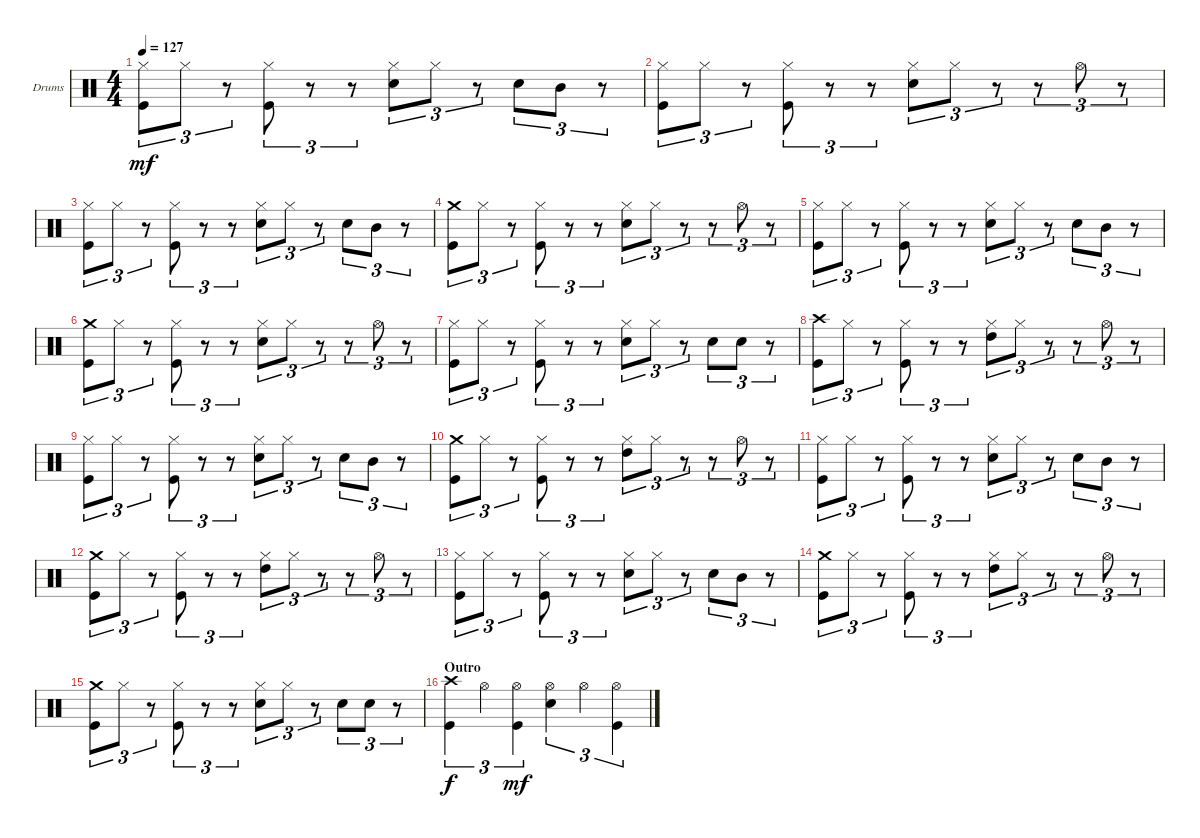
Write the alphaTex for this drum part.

\bracketExtendMode groupsimilarinstruments
\firstSystemTrackNameOrientation horizontal
\otherSystemsTrackNameOrientation horizontal
\track ("Drumkit" "Drums") {instrument percussion}
\staff {score}
\articulation defaults
\ts (4 4)
\tempo 127
\clef neutral
\ks c
("Kick (hit)" "Hi-Hat (closed)").8{tu (3 2) dy mf} "Hi-Hat (closed)".8{tu (3 2)} r.8{tu (3 2)} ("Hi-Hat (closed)" "Kick (hit)").8{tu (3 2)} r.8{tu (3 2)} r.8{tu (3 2)} ("Hi-Hat (closed)" "Snare (hit) 2").8{tu (3 2)} "Hi-Hat (closed)".8{tu (3 2)} r.8{tu (3 2)} "Snare (hit) 2".8{tu (3 2)} "Mid Tom (hit)".8{tu (3 2)} r.8{tu (3 2)} |
("Kick (hit)" "Hi-Hat (closed)").8{tu (3 2)} "Hi-Hat (closed)".8{tu (3 2)} r.8{tu (3 2)} ("Hi-Hat (closed)" "Kick (hit)").8{tu (3 2)} r.8{tu (3 2)} r.8{tu (3 2)} ("Snare (hit) 2" "Hi-Hat (closed)").8{tu (3 2)} "Hi-Hat (closed)".8{tu (3 2)} r.8{tu (3 2)} r.8{tu (3 2)} "Hi-Hat (open)".8{tu (3 2)} r.8{tu (3 2)} |
("Kick (hit)" "Hi-Hat (closed)").8{tu (3 2)} "Hi-Hat (closed)".8{tu (3 2)} r.8{tu (3 2)} ("Hi-Hat (closed)" "Kick (hit)").8{tu (3 2)} r.8{tu (3 2)} r.8{tu (3 2)} ("Hi-Hat (closed)" "Snare (hit) 2").8{tu (3 2)} "Hi-Hat (closed)".8{tu (3 2)} r.8{tu (3 2)} "Snare (hit) 2".8{tu (3 2)} "Mid Tom (hit)".8{tu (3 2)} r.8{tu (3 2)} |
("Kick (hit)" "Crash medium (hit)").8{tu (3 2)} "Hi-Hat (closed)".8{tu (3 2)} r.8{tu (3 2)} ("Hi-Hat (closed)" "Kick (hit)").8{tu (3 2)} r.8{tu (3 2)} r.8{tu (3 2)} ("Snare (hit) 2" "Hi-Hat (closed)").8{tu (3 2)} "Hi-Hat (closed)".8{tu (3 2)} r.8{tu (3 2)} r.8{tu (3 2)} "Hi-Hat (open)".8{tu (3 2)} r.8{tu (3 2)} |
("Kick (hit)" "Hi-Hat (closed)").8{tu (3 2)} "Hi-Hat (closed)".8{tu (3 2)} r.8{tu (3 2)} ("Hi-Hat (closed)" "Kick (hit)").8{tu (3 2)} r.8{tu (3 2)} r.8{tu (3 2)} ("Hi-Hat (closed)" "Snare (hit) 2").8{tu (3 2)} "Hi-Hat (closed)".8{tu (3 2)} r.8{tu (3 2)} "Snare (hit) 2".8{tu (3 2)} "Mid Tom (hit)".8{tu (3 2)} r.8{tu (3 2)} |
("Kick (hit)" "Crash medium (hit)").8{tu (3 2)} "Hi-Hat (closed)".8{tu (3 2)} r.8{tu (3 2)} ("Hi-Hat (closed)" "Kick (hit)").8{tu (3 2)} r.8{tu (3 2)} r.8{tu (3 2)} ("Snare (hit) 2" "Hi-Hat (closed)").8{tu (3 2)} "Hi-Hat (closed)".8{tu (3 2)} r.8{tu (3 2)} r.8{tu (3 2)} "Hi-Hat (open)".8{tu (3 2)} r.8{tu (3 2)} |
("Kick (hit)" "Hi-Hat (closed)").8{tu (3 2)} "Hi-Hat (closed)".8{tu (3 2)} r.8{tu (3 2)} ("Hi-Hat (closed)" "Kick (hit)").8{tu (3 2)} r.8{tu (3 2)} r.8{tu (3 2)} ("Hi-Hat (closed)" "Snare (hit) 2").8{tu (3 2)} "Hi-Hat (closed)".8{tu (3 2)} r.8{tu (3 2)} "Snare (hit) 2".8{tu (3 2)} "Snare (hit) 2".8{tu (3 2)} r.8{tu (3 2)} |
("Kick (hit)" "Crash high (hit)").8{tu (3 2)} "Hi-Hat (closed)".8{tu (3 2)} r.8{tu (3 2)} ("Hi-Hat (closed)" "Kick (hit)").8{tu (3 2)} r.8{tu (3 2)} r.8{tu (3 2)} ("Hi-Hat (closed)" "High Tom (hit)").8{tu (3 2)} "Hi-Hat (closed)".8{tu (3 2)} r.8{tu (3 2)} r.8{tu (3 2)} "Hi-Hat (open)".8{tu (3 2)} r.8{tu (3 2)} |
("Kick (hit)" "Hi-Hat (closed)").8{tu (3 2)} "Hi-Hat (closed)".8{tu (3 2)} r.8{tu (3 2)} ("Hi-Hat (closed)" "Kick (hit)").8{tu (3 2)} r.8{tu (3 2)} r.8{tu (3 2)} ("Hi-Hat (closed)" "Snare (hit) 2").8{tu (3 2)} "Hi-Hat (closed)".8{tu (3 2)} r.8{tu (3 2)} "Snare (hit) 2".8{tu (3 2)} "Mid Tom (hit)".8{tu (3 2)} r.8{tu (3 2)} |
("Kick (hit)" "Crash medium (hit)").8{tu (3 2)} "Hi-Hat (closed)".8{tu (3 2)} r.8{tu (3 2)} ("Hi-Hat (closed)" "Kick (hit)").8{tu (3 2)} r.8{tu (3 2)} r.8{tu (3 2)} ("Hi-Hat (closed)" "High Tom (hit)").8{tu (3 2)} "Hi-Hat (closed)".8{tu (3 2)} r.8{tu (3 2)} r.8{tu (3 2)} "Hi-Hat (open)".8{tu (3 2)} r.8{tu (3 2)} |
("Kick (hit)" "Hi-Hat (closed)").8{tu (3 2)} "Hi-Hat (closed)".8{tu (3 2)} r.8{tu (3 2)} ("Hi-Hat (closed)" "Kick (hit)").8{tu (3 2)} r.8{tu (3 2)} r.8{tu (3 2)} ("Hi-Hat (closed)" "Snare (hit) 2").8{tu (3 2)} "Hi-Hat (closed)".8{tu (3 2)} r.8{tu (3 2)} "Snare (hit) 2".8{tu (3 2)} "Mid Tom (hit)".8{tu (3 2)} r.8{tu (3 2)} |
("Kick (hit)" "Crash medium (hit)").8{tu (3 2)} "Hi-Hat (closed)".8{tu (3 2)} r.8{tu (3 2)} ("Hi-Hat (closed)" "Kick (hit)").8{tu (3 2)} r.8{tu (3 2)} r.8{tu (3 2)} ("Hi-Hat (closed)" "High Tom (hit)").8{tu (3 2)} "Hi-Hat (closed)".8{tu (3 2)} r.8{tu (3 2)} r.8{tu (3 2)} "Hi-Hat (open)".8{tu (3 2)} r.8{tu (3 2)} |
("Kick (hit)" "Hi-Hat (closed)").8{tu (3 2)} "Hi-Hat (closed)".8{tu (3 2)} r.8{tu (3 2)} ("Hi-Hat (closed)" "Kick (hit)").8{tu (3 2)} r.8{tu (3 2)} r.8{tu (3 2)} ("Hi-Hat (closed)" "Snare (hit) 2").8{tu (3 2)} "Hi-Hat (closed)".8{tu (3 2)} r.8{tu (3 2)} "Snare (hit) 2".8{tu (3 2)} "Mid Tom (hit)".8{tu (3 2)} r.8{tu (3 2)} |
("Kick (hit)" "Crash medium (hit)").8{tu (3 2)} "Hi-Hat (closed)".8{tu (3 2)} r.8{tu (3 2)} ("Hi-Hat (closed)" "Kick (hit)").8{tu (3 2)} r.8{tu (3 2)} r.8{tu (3 2)} ("Hi-Hat (closed)" "High Tom (hit)").8{tu (3 2)} "Hi-Hat (closed)".8{tu (3 2)} r.8{tu (3 2)} r.8{tu (3 2)} "Hi-Hat (open)".8{tu (3 2)} r.8{tu (3 2)} |
("Kick (hit)" "Crash medium (hit)").8{tu (3 2)} "Hi-Hat (closed)".8{tu (3 2)} r.8{tu (3 2)} ("Hi-Hat (closed)" "Kick (hit)").8{tu (3 2)} r.8{tu (3 2)} r.8{tu (3 2)} ("Hi-Hat (closed)" "Snare (hit) 2").8{tu (3 2)} "Hi-Hat (closed)".8{tu (3 2)} r.8{tu (3 2)} "Snare (hit) 2".8{tu (3 2)} "Snare (hit) 2".8{tu (3 2)} r.8{tu (3 2)} |
\section ("" "Outro")
("Crash high (hit)" "Kick (hit)").4{tu (3 2) dy f} "Hi-Hat (open)".4{tu (3 2)} ("Hi-Hat (open)" "Kick (hit)").4{tu (3 2) dy mf} ("Hi-Hat (open)" "Snare (hit) 2").4{tu (3 2)} "Hi-Hat (open)".4{tu (3 2)} ("Hi-Hat (open)" "Kick (hit)").4{tu (3 2)}
